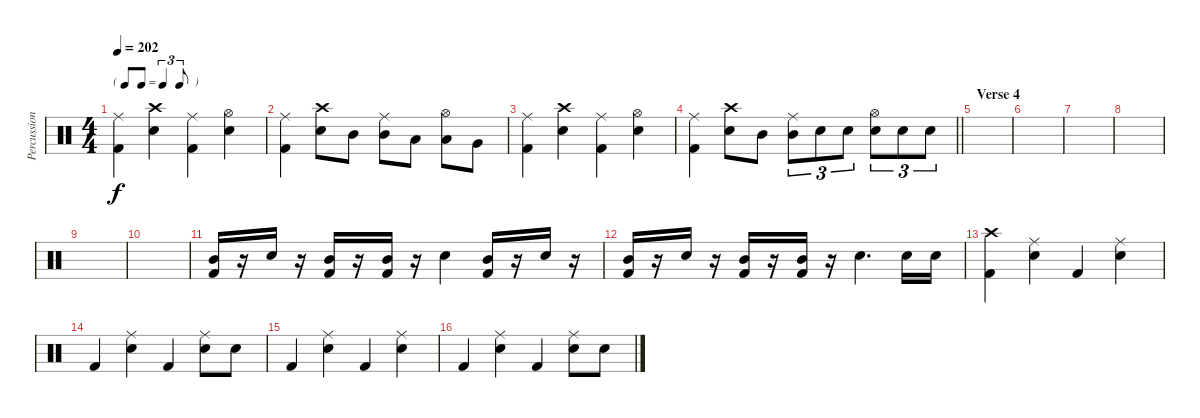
\track ("Percussion" "Percussion") {instrument percussion}
\staff {score}
\articulation defaults
\ts (4 4)
\tf triplet8th
\tempo 202
\clef neutral
\ks c
("Ride (middle)" "Kick (hit) 2").4{dy f} ("Crash high (hit)" "Electric Snare (hit)").4 ("Ride (middle)" "Kick (hit) 2").4 ("Hi-Hat (open)" "Electric Snare (hit)").4 |
("Ride (middle)" "Kick (hit) 2").4 ("Crash high (hit)" "Electric Snare (hit)").8 "Mid Tom (hit)".8 ("Ride (middle)" "Mid Tom (hit)").8 "Low Tom (hit)".8 ("Hi-Hat (open)" "Low Tom (hit)").8 "Very Low Tom (hit)".8 |
("Ride (middle)" "Kick (hit) 2").4 ("Crash high (hit)" "Electric Snare (hit)").4 ("Ride (middle)" "Kick (hit) 2").4 ("Hi-Hat (open)" "Electric Snare (hit)").4 |
\barLineRight lightlight
("Ride (middle)" "Kick (hit) 2").4 ("Crash high (hit)" "Electric Snare (hit)").8 "Mid Tom (hit)".8 ("Ride (middle)" "Mid Tom (hit)").8{tu (3 2)} "Electric Snare (hit)".8{tu (3 2)} "Electric Snare (hit)".8{tu (3 2)} ("Hi-Hat (open)" "Electric Snare (hit)").8{tu (3 2)} "Electric Snare (hit)".8{tu (3 2)} "Electric Snare (hit)".8{tu (3 2)} |
\section ("" "Verse 4")
|
|
|
|
|
|
("Mid Tom (hit)" "Kick (hit) 2").16 r.16 "Electric Snare (hit)".16 r.16 ("Mid Tom (hit)" "Kick (hit) 2").16 r.16 ("Mid Tom (hit)" "Kick (hit) 2").16 r.16 "Electric Snare (hit)".4 ("Mid Tom (hit)" "Kick (hit) 2").16 r.16 "Electric Snare (hit)".16 r.16 |
("Mid Tom (hit)" "Kick (hit) 2").16 r.16 "Electric Snare (hit)".16 r.16 ("Mid Tom (hit)" "Kick (hit) 2").16 r.16 ("Mid Tom (hit)" "Kick (hit) 2").16 r.16 "Electric Snare (hit)".4{d} "Electric Snare (hit)".16 "Electric Snare (hit)".16 |
("Crash high (hit)" "Kick (hit) 2").4 ("Ride (middle)" "Electric Snare (hit)").4 "Kick (hit) 2".4 ("Ride (middle)" "Electric Snare (hit)").4 |
"Kick (hit) 2".4 ("Ride (middle)" "Electric Snare (hit)").4 "Kick (hit) 2".4 ("Ride (middle)" "Electric Snare (hit)").8 "Electric Snare (hit)".8 |
"Kick (hit) 2".4 ("Ride (middle)" "Electric Snare (hit)").4 "Kick (hit) 2".4 ("Ride (middle)" "Electric Snare (hit)").4 |
"Kick (hit) 2".4 ("Ride (middle)" "Electric Snare (hit)").4 "Kick (hit) 2".4 ("Ride (middle)" "Electric Snare (hit)").8 "Electric Snare (hit)".8
